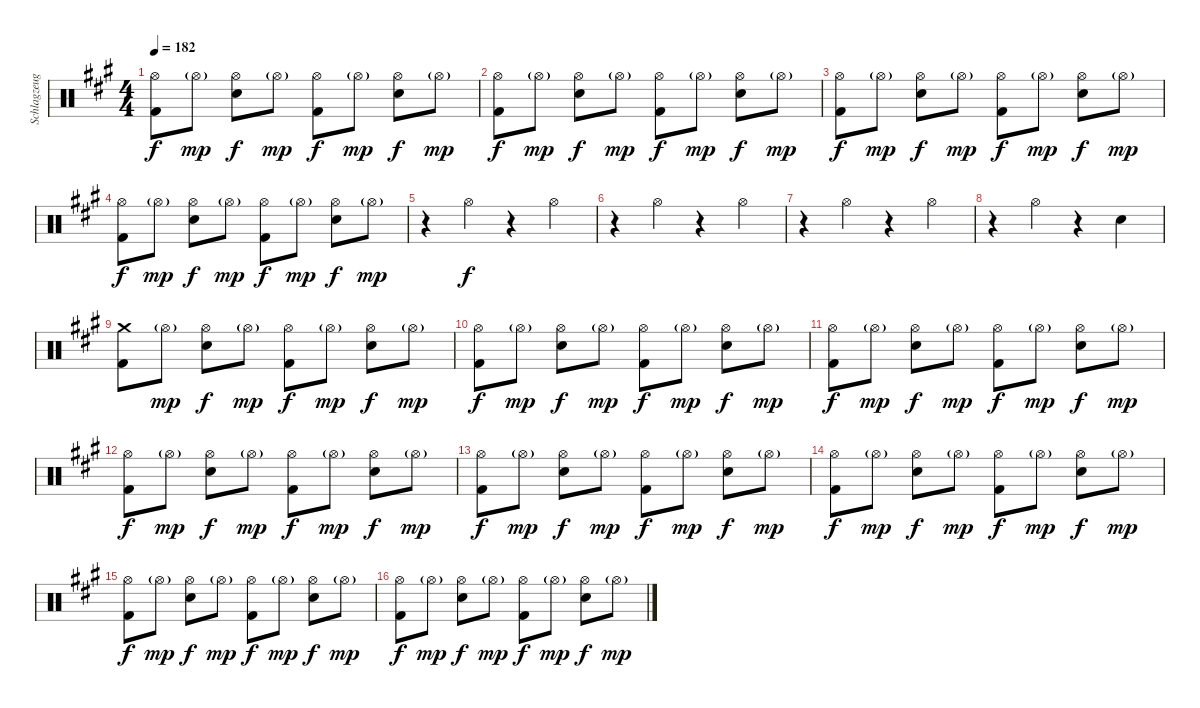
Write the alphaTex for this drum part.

\track ("Schlagzeug" "Schlagzeug") {instrument percussion}
\staff {score}
\articulation defaults
\ts (4 4)
\tempo 182
\clef neutral
\ks a
("Hi-Hat (open)" "Kick (hit) 2").8{dy f} "Hi-Hat (open)"{g}.8{dy mp} ("Hi-Hat (open)" "Snare (hit) 2").8{dy f} "Hi-Hat (open)"{g}.8{dy mp} ("Hi-Hat (open)" "Kick (hit) 2").8{dy f} "Hi-Hat (open)"{g}.8{dy mp} ("Hi-Hat (open)" "Snare (hit) 2").8{dy f} "Hi-Hat (open)"{g}.8{dy mp} |
("Hi-Hat (open)" "Kick (hit) 2").8{dy f} "Hi-Hat (open)"{g}.8{dy mp} ("Hi-Hat (open)" "Snare (hit) 2").8{dy f} "Hi-Hat (open)"{g}.8{dy mp} ("Hi-Hat (open)" "Kick (hit) 2").8{dy f} "Hi-Hat (open)"{g}.8{dy mp} ("Hi-Hat (open)" "Snare (hit) 2").8{dy f} "Hi-Hat (open)"{g}.8{dy mp} |
("Hi-Hat (open)" "Kick (hit) 2").8{dy f} "Hi-Hat (open)"{g}.8{dy mp} ("Hi-Hat (open)" "Snare (hit) 2").8{dy f} "Hi-Hat (open)"{g}.8{dy mp} ("Hi-Hat (open)" "Kick (hit) 2").8{dy f} "Hi-Hat (open)"{g}.8{dy mp} ("Hi-Hat (open)" "Snare (hit) 2").8{dy f} "Hi-Hat (open)"{g}.8{dy mp} |
("Hi-Hat (open)" "Kick (hit) 2").8{dy f} "Hi-Hat (open)"{g}.8{dy mp} ("Hi-Hat (open)" "Snare (hit) 2").8{dy f} "Hi-Hat (open)"{g}.8{dy mp} ("Hi-Hat (open)" "Kick (hit) 2").8{dy f} "Hi-Hat (open)"{g}.8{dy mp} ("Hi-Hat (open)" "Snare (hit) 2").8{dy f} "Hi-Hat (open)"{g}.8{dy mp} |
r.4 "Hi-Hat (open)".4{dy f} r.4 "Hi-Hat (open)".4 |
r.4 "Hi-Hat (open)".4 r.4 "Hi-Hat (open)".4 |
r.4 "Hi-Hat (open)".4 r.4 "Hi-Hat (open)".4 |
r.4 "Hi-Hat (open)".4 r.4 "Snare (hit) 2".4 |
("Crash medium (hit)" "Kick (hit) 2").8 "Hi-Hat (open)"{g}.8{dy mp} ("Hi-Hat (open)" "Snare (hit) 2").8{dy f} "Hi-Hat (open)"{g}.8{dy mp} ("Hi-Hat (open)" "Kick (hit) 2").8{dy f} "Hi-Hat (open)"{g}.8{dy mp} ("Hi-Hat (open)" "Snare (hit) 2").8{dy f} "Hi-Hat (open)"{g}.8{dy mp} |
("Hi-Hat (open)" "Kick (hit) 2").8{dy f} "Hi-Hat (open)"{g}.8{dy mp} ("Hi-Hat (open)" "Snare (hit) 2").8{dy f} "Hi-Hat (open)"{g}.8{dy mp} ("Hi-Hat (open)" "Kick (hit) 2").8{dy f} "Hi-Hat (open)"{g}.8{dy mp} ("Hi-Hat (open)" "Snare (hit) 2").8{dy f} "Hi-Hat (open)"{g}.8{dy mp} |
("Hi-Hat (open)" "Kick (hit) 2").8{dy f} "Hi-Hat (open)"{g}.8{dy mp} ("Hi-Hat (open)" "Snare (hit) 2").8{dy f} "Hi-Hat (open)"{g}.8{dy mp} ("Hi-Hat (open)" "Kick (hit) 2").8{dy f} "Hi-Hat (open)"{g}.8{dy mp} ("Hi-Hat (open)" "Snare (hit) 2").8{dy f} "Hi-Hat (open)"{g}.8{dy mp} |
("Hi-Hat (open)" "Kick (hit) 2").8{dy f} "Hi-Hat (open)"{g}.8{dy mp} ("Hi-Hat (open)" "Snare (hit) 2").8{dy f} "Hi-Hat (open)"{g}.8{dy mp} ("Hi-Hat (open)" "Kick (hit) 2").8{dy f} "Hi-Hat (open)"{g}.8{dy mp} ("Hi-Hat (open)" "Snare (hit) 2").8{dy f} "Hi-Hat (open)"{g}.8{dy mp} |
("Hi-Hat (open)" "Kick (hit) 2").8{dy f} "Hi-Hat (open)"{g}.8{dy mp} ("Hi-Hat (open)" "Snare (hit) 2").8{dy f} "Hi-Hat (open)"{g}.8{dy mp} ("Hi-Hat (open)" "Kick (hit) 2").8{dy f} "Hi-Hat (open)"{g}.8{dy mp} ("Hi-Hat (open)" "Snare (hit) 2").8{dy f} "Hi-Hat (open)"{g}.8{dy mp} |
("Hi-Hat (open)" "Kick (hit) 2").8{dy f} "Hi-Hat (open)"{g}.8{dy mp} ("Hi-Hat (open)" "Snare (hit) 2").8{dy f} "Hi-Hat (open)"{g}.8{dy mp} ("Hi-Hat (open)" "Kick (hit) 2").8{dy f} "Hi-Hat (open)"{g}.8{dy mp} ("Hi-Hat (open)" "Snare (hit) 2").8{dy f} "Hi-Hat (open)"{g}.8{dy mp} |
("Hi-Hat (open)" "Kick (hit) 2").8{dy f} "Hi-Hat (open)"{g}.8{dy mp} ("Hi-Hat (open)" "Snare (hit) 2").8{dy f} "Hi-Hat (open)"{g}.8{dy mp} ("Hi-Hat (open)" "Kick (hit) 2").8{dy f} "Hi-Hat (open)"{g}.8{dy mp} ("Hi-Hat (open)" "Snare (hit) 2").8{dy f} "Hi-Hat (open)"{g}.8{dy mp} |
("Hi-Hat (open)" "Kick (hit) 2").8{dy f} "Hi-Hat (open)"{g}.8{dy mp} ("Hi-Hat (open)" "Snare (hit) 2").8{dy f} "Hi-Hat (open)"{g}.8{dy mp} ("Hi-Hat (open)" "Kick (hit) 2").8{dy f} "Hi-Hat (open)"{g}.8{dy mp} ("Hi-Hat (open)" "Snare (hit) 2").8{dy f} "Hi-Hat (open)"{g}.8{dy mp}
